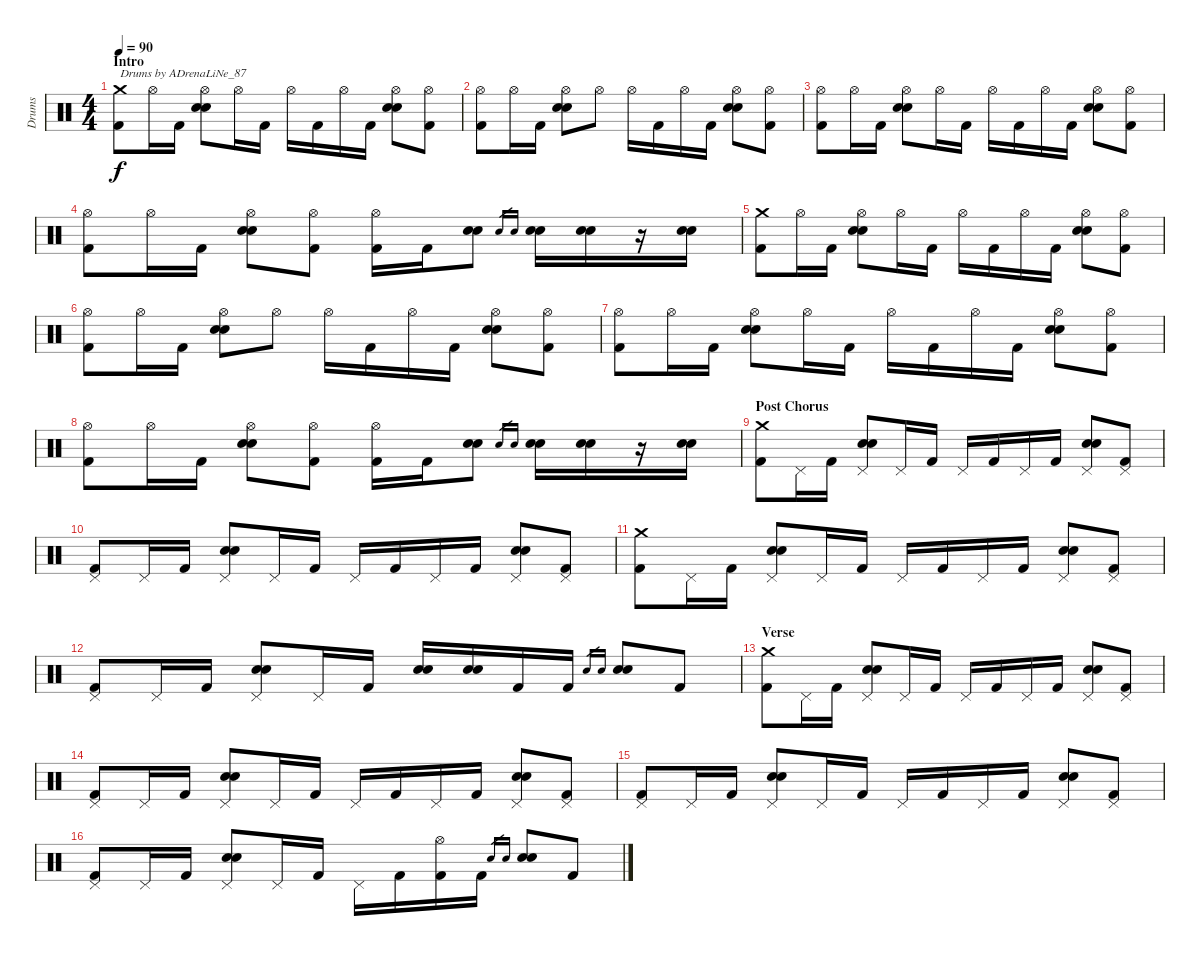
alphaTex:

\track ("Drums" "Drums") {instrument percussion}
\staff {score}
\articulation defaults
\ts (4 4)
\section ("" "Intro")
\tempo 90
\clef neutral
\ks c
("Crash medium (hit)" "Kick (hit) 2").8{txt "Drums by ADrenaLiNe_87" dy f} "Hi-Hat (open)".16 "Kick (hit) 2".16 ("Hi-Hat (open)" "Electric Snare (hit)" "Snare (hit) 2").8 "Hi-Hat (open)".16 "Kick (hit) 2".16 "Hi-Hat (open)".16 "Kick (hit) 2".16 "Hi-Hat (open)".16 "Kick (hit) 2".16 ("Hi-Hat (open)" "Electric Snare (hit)" "Snare (hit) 2").8 ("Hi-Hat (open)" "Kick (hit) 2").8 |
("Hi-Hat (open)" "Kick (hit) 2").8 "Hi-Hat (open)".16 "Kick (hit) 2".16 ("Hi-Hat (open)" "Electric Snare (hit)" "Snare (hit) 2").8 "Hi-Hat (open)".8 "Hi-Hat (open)".16 "Kick (hit) 2".16 "Hi-Hat (open)".16 "Kick (hit) 2".16 ("Hi-Hat (open)" "Electric Snare (hit)" "Snare (hit) 2").8 ("Hi-Hat (open)" "Kick (hit) 2").8 |
("Hi-Hat (open)" "Kick (hit) 2").8 "Hi-Hat (open)".16 "Kick (hit) 2".16 ("Hi-Hat (open)" "Electric Snare (hit)" "Snare (hit) 2").8 "Hi-Hat (open)".16 "Kick (hit) 2".16 "Hi-Hat (open)".16 "Kick (hit) 2".16 "Hi-Hat (open)".16 "Kick (hit) 2".16 ("Hi-Hat (open)" "Electric Snare (hit)" "Snare (hit) 2").8 ("Hi-Hat (open)" "Kick (hit) 2").8 |
("Hi-Hat (open)" "Kick (hit) 2").8 "Hi-Hat (open)".16 "Kick (hit) 2".16 ("Hi-Hat (open)" "Electric Snare (hit)" "Snare (hit) 2").8 ("Hi-Hat (open)" "Kick (hit) 2").8 ("Hi-Hat (open)" "Kick (hit) 2").16 "Kick (hit) 2".16 ("Electric Snare (hit)" "Snare (hit) 2").8 "Electric Snare (hit)".16{gr} "Snare (hit) 2".16{gr} ("Electric Snare (hit)" "Snare (hit) 2").16 ("Electric Snare (hit)" "Snare (hit) 2").16 r.16 ("Electric Snare (hit)" "Snare (hit) 2").16 |
("Crash medium (hit)" "Kick (hit) 2").8 "Hi-Hat (open)".16 "Kick (hit) 2".16 ("Hi-Hat (open)" "Electric Snare (hit)" "Snare (hit) 2").8 "Hi-Hat (open)".16 "Kick (hit) 2".16 "Hi-Hat (open)".16 "Kick (hit) 2".16 "Hi-Hat (open)".16 "Kick (hit) 2".16 ("Hi-Hat (open)" "Electric Snare (hit)" "Snare (hit) 2").8 ("Hi-Hat (open)" "Kick (hit) 2").8 |
("Hi-Hat (open)" "Kick (hit) 2").8 "Hi-Hat (open)".16 "Kick (hit) 2".16 ("Hi-Hat (open)" "Electric Snare (hit)" "Snare (hit) 2").8 "Hi-Hat (open)".8 "Hi-Hat (open)".16 "Kick (hit) 2".16 "Hi-Hat (open)".16 "Kick (hit) 2".16 ("Hi-Hat (open)" "Electric Snare (hit)" "Snare (hit) 2").8 ("Hi-Hat (open)" "Kick (hit) 2").8 |
("Hi-Hat (open)" "Kick (hit) 2").8 "Hi-Hat (open)".16 "Kick (hit) 2".16 ("Hi-Hat (open)" "Electric Snare (hit)" "Snare (hit) 2").8 "Hi-Hat (open)".16 "Kick (hit) 2".16 "Hi-Hat (open)".16 "Kick (hit) 2".16 "Hi-Hat (open)".16 "Kick (hit) 2".16 ("Hi-Hat (open)" "Electric Snare (hit)" "Snare (hit) 2").8 ("Hi-Hat (open)" "Kick (hit) 2").8 |
("Hi-Hat (open)" "Kick (hit) 2").8 "Hi-Hat (open)".16 "Kick (hit) 2".16 ("Hi-Hat (open)" "Electric Snare (hit)" "Snare (hit) 2").8 ("Hi-Hat (open)" "Kick (hit) 2").8 ("Hi-Hat (open)" "Kick (hit) 2").16 "Kick (hit) 2".16 ("Electric Snare (hit)" "Snare (hit) 2").8 "Electric Snare (hit)".16{gr} "Snare (hit) 2".16{gr} ("Electric Snare (hit)" "Snare (hit) 2").16 ("Electric Snare (hit)" "Snare (hit) 2").16 r.16 ("Electric Snare (hit)" "Snare (hit) 2").16 |
\section ("" "Post Chorus")
("Crash medium (hit)" "Kick (hit) 2").8 "Pedal Hi-Hat (hit)".16 "Kick (hit) 2".16 ("Pedal Hi-Hat (hit)" "Electric Snare (hit)" "Snare (hit) 2").8 "Pedal Hi-Hat (hit)".16 "Kick (hit) 2".16 "Pedal Hi-Hat (hit)".16 "Kick (hit) 2".16 "Pedal Hi-Hat (hit)".16 "Kick (hit) 2".16 ("Pedal Hi-Hat (hit)" "Electric Snare (hit)" "Snare (hit) 2").8 ("Pedal Hi-Hat (hit)" "Kick (hit) 2").8 |
("Pedal Hi-Hat (hit)" "Kick (hit) 2").8 "Pedal Hi-Hat (hit)".16 "Kick (hit) 2".16 ("Pedal Hi-Hat (hit)" "Electric Snare (hit)" "Snare (hit) 2").8 "Pedal Hi-Hat (hit)".16 "Kick (hit) 2".16 "Pedal Hi-Hat (hit)".16 "Kick (hit) 2".16 "Pedal Hi-Hat (hit)".16 "Kick (hit) 2".16 ("Pedal Hi-Hat (hit)" "Electric Snare (hit)" "Snare (hit) 2").8 ("Pedal Hi-Hat (hit)" "Kick (hit) 2").8 |
("Crash medium (hit)" "Kick (hit) 2").8 "Pedal Hi-Hat (hit)".16 "Kick (hit) 2".16 ("Pedal Hi-Hat (hit)" "Electric Snare (hit)" "Snare (hit) 2").8 "Pedal Hi-Hat (hit)".16 "Kick (hit) 2".16 "Pedal Hi-Hat (hit)".16 "Kick (hit) 2".16 "Pedal Hi-Hat (hit)".16 "Kick (hit) 2".16 ("Pedal Hi-Hat (hit)" "Electric Snare (hit)" "Snare (hit) 2").8 ("Pedal Hi-Hat (hit)" "Kick (hit) 2").8 |
("Pedal Hi-Hat (hit)" "Kick (hit) 2").8 "Pedal Hi-Hat (hit)".16 "Kick (hit) 2".16 ("Pedal Hi-Hat (hit)" "Electric Snare (hit)" "Snare (hit) 2").8 "Pedal Hi-Hat (hit)".16 "Kick (hit) 2".16 ("Snare (hit) 2" "Electric Snare (hit)").16 ("Snare (hit) 2" "Electric Snare (hit)").16 "Kick (hit) 2".16 "Kick (hit) 2".16 "Snare (hit) 2".16{gr} "Electric Snare (hit)".16{gr} ("Snare (hit) 2" "Electric Snare (hit)").8 "Kick (hit) 2".8 |
\section ("" "Verse")
("Crash medium (hit)" "Kick (hit) 2").8 "Pedal Hi-Hat (hit)".16 "Kick (hit) 2".16 ("Pedal Hi-Hat (hit)" "Electric Snare (hit)" "Snare (hit) 2").8 "Pedal Hi-Hat (hit)".16 "Kick (hit) 2".16 "Pedal Hi-Hat (hit)".16 "Kick (hit) 2".16 "Pedal Hi-Hat (hit)".16 "Kick (hit) 2".16 ("Pedal Hi-Hat (hit)" "Electric Snare (hit)" "Snare (hit) 2").8 ("Pedal Hi-Hat (hit)" "Kick (hit) 2").8 |
("Pedal Hi-Hat (hit)" "Kick (hit) 2").8 "Pedal Hi-Hat (hit)".16 "Kick (hit) 2".16 ("Pedal Hi-Hat (hit)" "Electric Snare (hit)" "Snare (hit) 2").8 "Pedal Hi-Hat (hit)".16 "Kick (hit) 2".16 "Pedal Hi-Hat (hit)".16 "Kick (hit) 2".16 "Pedal Hi-Hat (hit)".16 "Kick (hit) 2".16 ("Pedal Hi-Hat (hit)" "Electric Snare (hit)" "Snare (hit) 2").8 ("Pedal Hi-Hat (hit)" "Kick (hit) 2").8 |
("Pedal Hi-Hat (hit)" "Kick (hit) 2").8 "Pedal Hi-Hat (hit)".16 "Kick (hit) 2".16 ("Pedal Hi-Hat (hit)" "Electric Snare (hit)" "Snare (hit) 2").8 "Pedal Hi-Hat (hit)".16 "Kick (hit) 2".16 "Pedal Hi-Hat (hit)".16 "Kick (hit) 2".16 "Pedal Hi-Hat (hit)".16 "Kick (hit) 2".16 ("Pedal Hi-Hat (hit)" "Electric Snare (hit)" "Snare (hit) 2").8 ("Pedal Hi-Hat (hit)" "Kick (hit) 2").8 |
("Pedal Hi-Hat (hit)" "Kick (hit) 2").8 "Pedal Hi-Hat (hit)".16 "Kick (hit) 2".16 ("Pedal Hi-Hat (hit)" "Electric Snare (hit)" "Snare (hit) 2").8 "Pedal Hi-Hat (hit)".16 "Kick (hit) 2".16 "Pedal Hi-Hat (hit)".16 "Kick (hit) 2".16 ("Hi-Hat (open)" "Kick (hit) 2").16 "Kick (hit) 2".16 "Snare (hit) 2".16{gr} "Electric Snare (hit)".16{gr} ("Snare (hit) 2" "Electric Snare (hit)").8 "Kick (hit) 2".8
